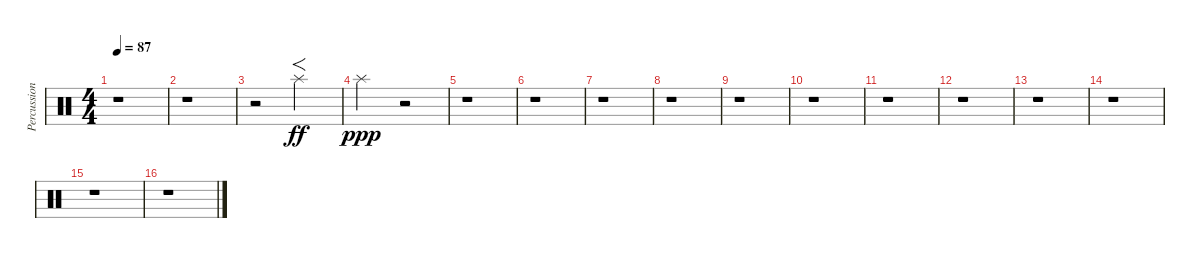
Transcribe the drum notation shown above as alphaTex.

\track ("Percussion" "Percussion") {instrument percussion}
\staff {score}
\articulation defaults
\ts (4 4)
\tempo 87
\clef neutral
\ks c
r.1{dy ppp} |
r.1 |
r.2 "Splash (hit)".2{f dy ff} |
"Splash (hit)".2{dy ppp} r.2 |
r.1 |
r.1 |
r.1 |
r.1 |
r.1 |
r.1 |
r.1 |
r.1 |
r.1 |
r.1 |
r.1 |
r.1
